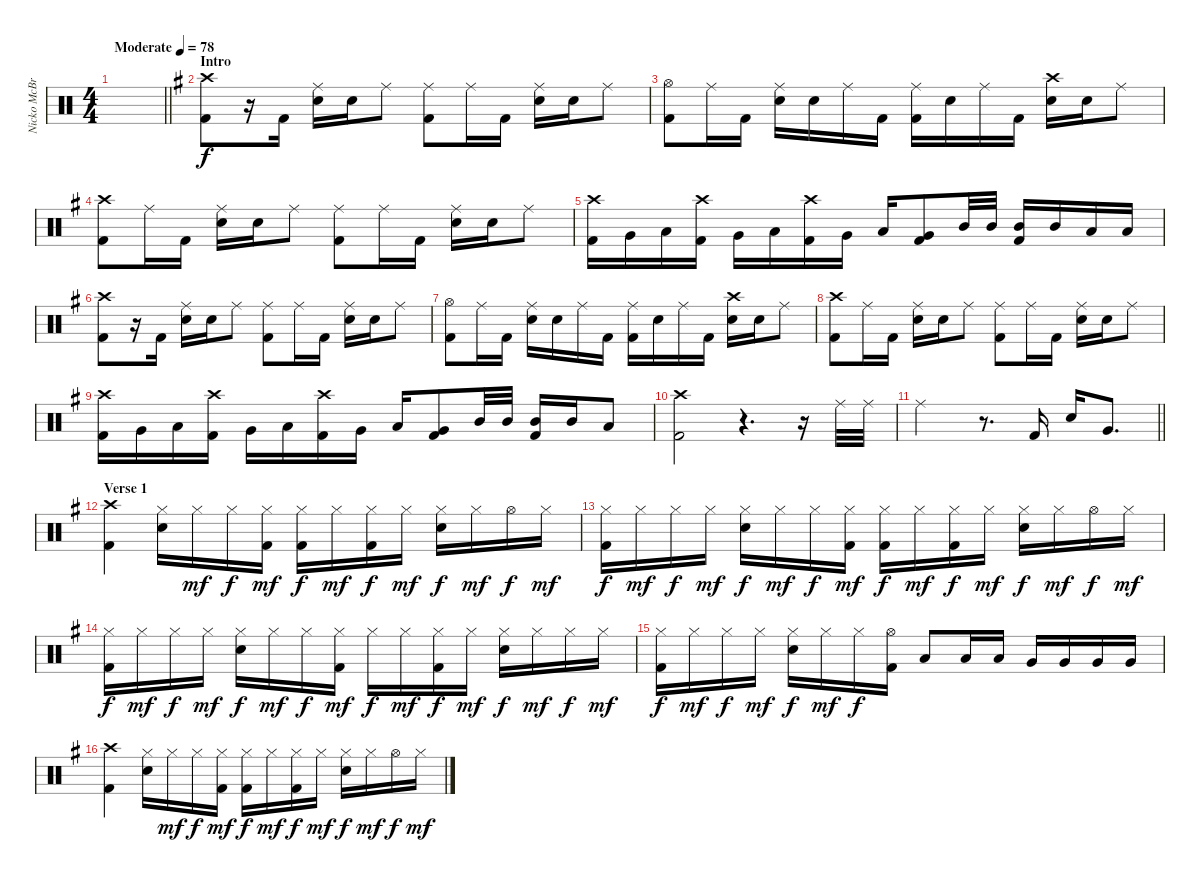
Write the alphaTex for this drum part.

\track ("Nicko McBrain" "Nicko McBr") {instrument percussion}
\staff {score}
\articulation defaults
\ts (4 4)
\tempo (78 "Moderate")
\clef neutral
\barLineRight lightlight
\ks c
|
\section ("" "Intro")
\ks g
("Crash high (hit)" "Kick (hit) 2").8 r.16 "Kick (hit) 2".16 ("Ride (middle)" "Electric Snare (hit)").16 "Electric Snare (hit)".16 "Ride (middle)".8 ("Ride (middle)" "Kick (hit) 2").8 "Ride (middle)".16 "Kick (hit) 2".16 ("Ride (middle)" "Electric Snare (hit)").16 "Electric Snare (hit)".16 "Ride (middle)".8 |
("Hi-Hat (open)" "Kick (hit) 2").8 "Ride (middle)".16 "Kick (hit) 2".16 ("Ride (middle)" "Electric Snare (hit)").16 "Electric Snare (hit)".16 "Ride (middle)".16 "Kick (hit) 2".16 ("Ride (middle)" "Kick (hit) 2").16 "Electric Snare (hit)".16 "Ride (middle)".16 "Kick (hit) 2".16 ("Crash high (hit)" "Electric Snare (hit)").16 "Electric Snare (hit)".16 "Ride (middle)".8 |
("Crash high (hit)" "Kick (hit) 2").8 "Ride (middle)".16 "Kick (hit) 2".16 ("Ride (middle)" "Electric Snare (hit)").16 "Electric Snare (hit)".16 "Ride (middle)".8 ("Ride (middle)" "Kick (hit) 2").8 "Ride (middle)".16 "Kick (hit) 2".16 ("Ride (middle)" "Electric Snare (hit)").16 "Electric Snare (hit)".16 "Ride (middle)".8 |
("Crash high (hit)" "Kick (hit) 2").16 "Very Low Tom (hit)".16 "Low Tom (hit)".16 ("Crash high (hit)" "Kick (hit) 2").16 "Very Low Tom (hit)".16 "Low Tom (hit)".16 ("Crash high (hit)" "Kick (hit) 2").16 "Very Low Tom (hit)".16 "Low Tom (hit)".16 ("Very Low Tom (hit)" "Kick (hit) 2").8 "Mid Tom (hit)".32 "Mid Tom (hit)".32 ("Mid Tom (hit)" "Kick (hit) 2").16 "Mid Tom (hit)".16 "Low Tom (hit)".16 "Low Tom (hit)".16 |
("Crash high (hit)" "Kick (hit) 2").8 r.16 "Kick (hit) 2".16 ("Ride (middle)" "Electric Snare (hit)").16 "Electric Snare (hit)".16 "Ride (middle)".8 ("Ride (middle)" "Kick (hit) 2").8 "Ride (middle)".16 "Kick (hit) 2".16 ("Ride (middle)" "Electric Snare (hit)").16 "Electric Snare (hit)".16 "Ride (middle)".8 |
("Hi-Hat (open)" "Kick (hit) 2").8 "Ride (middle)".16 "Kick (hit) 2".16 ("Ride (middle)" "Electric Snare (hit)").16 "Electric Snare (hit)".16 "Ride (middle)".16 "Kick (hit) 2".16 ("Ride (middle)" "Kick (hit) 2").16 "Electric Snare (hit)".16 "Ride (middle)".16 "Kick (hit) 2".16 ("Crash high (hit)" "Electric Snare (hit)").16 "Electric Snare (hit)".16 "Ride (middle)".8 |
("Crash high (hit)" "Kick (hit) 2").8 "Ride (middle)".16 "Kick (hit) 2".16 ("Ride (middle)" "Electric Snare (hit)").16 "Electric Snare (hit)".16 "Ride (middle)".8 ("Ride (middle)" "Kick (hit) 2").8 "Ride (middle)".16 "Kick (hit) 2".16 ("Ride (middle)" "Electric Snare (hit)").16 "Electric Snare (hit)".16 "Ride (middle)".8 |
("Crash high (hit)" "Kick (hit) 2").16 "Very Low Tom (hit)".16 "Low Tom (hit)".16 ("Crash high (hit)" "Kick (hit) 2").16 "Very Low Tom (hit)".16 "Low Tom (hit)".16 ("Crash high (hit)" "Kick (hit) 2").16 "Very Low Tom (hit)".16 "Low Tom (hit)".16 ("Very Low Tom (hit)" "Kick (hit) 2").8 "Mid Tom (hit)".32 "Mid Tom (hit)".32 ("Mid Tom (hit)" "Kick (hit) 2").16 "Mid Tom (hit)".16 "Low Tom (hit)".8 |
("Crash high (hit)" "Kick (hit) 2").2 r.4{d} r.16 "Ride (middle)".32 "Ride (middle)".32 |
\barLineRight lightlight "Ride (middle)".2
r.8{d} "Kick (hit) 2".16 "Electric Snare (hit)".16 "Very Low Tom (hit)".8{d} |
\section ("" "Verse 1")
("Crash high (hit)" "Kick (hit) 2").4 ("Hi-Hat (closed)" "Electric Snare (hit)").16 "Hi-Hat (closed)".16{dy mf} "Hi-Hat (closed)".16{dy f} ("Hi-Hat (closed)" "Kick (hit) 2").16{dy mf} ("Hi-Hat (closed)" "Kick (hit) 2").16{dy f} "Hi-Hat (closed)".16{dy mf} ("Hi-Hat (closed)" "Kick (hit) 2").16{dy f} "Hi-Hat (closed)".16{dy mf} ("Hi-Hat (closed)" "Electric Snare (hit)").16{dy f} "Hi-Hat (closed)".16{dy mf} "Hi-Hat (open)".16{dy f} "Hi-Hat (closed)".16{dy mf} |
("Hi-Hat (closed)" "Kick (hit) 2").16{dy f} "Hi-Hat (closed)".16{dy mf} "Hi-Hat (closed)".16{dy f} "Hi-Hat (closed)".16{dy mf} ("Hi-Hat (closed)" "Electric Snare (hit)").16{dy f} "Hi-Hat (closed)".16{dy mf} "Hi-Hat (closed)".16{dy f} ("Hi-Hat (closed)" "Kick (hit) 2").16{dy mf} ("Hi-Hat (closed)" "Kick (hit) 2").16{dy f} "Hi-Hat (closed)".16{dy mf} ("Hi-Hat (closed)" "Kick (hit) 2").16{dy f} "Hi-Hat (closed)".16{dy mf} ("Hi-Hat (closed)" "Electric Snare (hit)").16{dy f} "Hi-Hat (closed)".16{dy mf} "Hi-Hat (open)".16{dy f} "Hi-Hat (closed)".16{dy mf} |
("Hi-Hat (closed)" "Kick (hit) 2").16{dy f} "Hi-Hat (closed)".16{dy mf} "Hi-Hat (closed)".16{dy f} "Hi-Hat (closed)".16{dy mf} ("Hi-Hat (closed)" "Electric Snare (hit)").16{dy f} "Hi-Hat (closed)".16{dy mf} "Hi-Hat (closed)".16{dy f} ("Hi-Hat (closed)" "Kick (hit) 2").16{dy mf} "Hi-Hat (closed)".16{dy f} "Hi-Hat (closed)".16{dy mf} ("Hi-Hat (closed)" "Kick (hit) 2").16{dy f} "Hi-Hat (closed)".16{dy mf} ("Hi-Hat (closed)" "Electric Snare (hit)").16{dy f} "Hi-Hat (closed)".16{dy mf} "Hi-Hat (closed)".16{dy f} "Hi-Hat (closed)".16{dy mf} |
("Hi-Hat (closed)" "Kick (hit) 2").16{dy f} "Hi-Hat (closed)".16{dy mf} "Hi-Hat (closed)".16{dy f} "Hi-Hat (closed)".16{dy mf} ("Hi-Hat (closed)" "Electric Snare (hit)").16{dy f} "Hi-Hat (closed)".16{dy mf} "Hi-Hat (closed)".16{dy f} ("Hi-Hat (open)" "Kick (hit) 2").16 "Low Tom (hit)".8 "Low Tom (hit)".16 "Low Tom (hit)".16 "Very Low Tom (hit)".16 "Very Low Tom (hit)".16 "Very Low Tom (hit)".16 "Very Low Tom (hit)".16 |
("Crash high (hit)" "Kick (hit) 2").4 ("Hi-Hat (closed)" "Electric Snare (hit)").16 "Hi-Hat (closed)".16{dy mf} "Hi-Hat (closed)".16{dy f} ("Hi-Hat (closed)" "Kick (hit) 2").16{dy mf} ("Hi-Hat (closed)" "Kick (hit) 2").16{dy f} "Hi-Hat (closed)".16{dy mf} ("Hi-Hat (closed)" "Kick (hit) 2").16{dy f} "Hi-Hat (closed)".16{dy mf} ("Hi-Hat (closed)" "Electric Snare (hit)").16{dy f} "Hi-Hat (closed)".16{dy mf} "Hi-Hat (open)".16{dy f} "Hi-Hat (closed)".16{dy mf}
